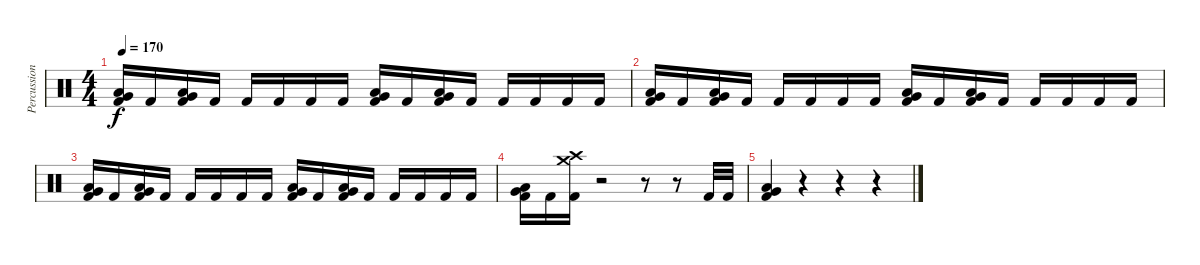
\track ("Percussion" "Percussion") {instrument percussion}
\staff {score}
\articulation defaults
\ts (4 4)
\tempo 170
\clef neutral
\ks c
("Low Floor Tom (hit)" "Very Low Tom (hit)" "Kick (hit) 2").16{dy f} "Kick (hit) 2".16 ("Low Floor Tom (hit)" "Very Low Tom (hit)" "Kick (hit) 2").16 "Kick (hit) 2".16 "Kick (hit) 2".16 "Kick (hit) 2".16 "Kick (hit) 2".16 "Kick (hit) 2".16 ("Low Floor Tom (hit)" "Very Low Tom (hit)" "Kick (hit) 2").16 "Kick (hit) 2".16 ("Low Floor Tom (hit)" "Very Low Tom (hit)" "Kick (hit) 2").16 "Kick (hit) 2".16 "Kick (hit) 2".16 "Kick (hit) 2".16 "Kick (hit) 2".16 "Kick (hit) 2".16 |
("Low Floor Tom (hit)" "Very Low Tom (hit)" "Kick (hit) 2").16 "Kick (hit) 2".16 ("Low Floor Tom (hit)" "Very Low Tom (hit)" "Kick (hit) 2").16 "Kick (hit) 2".16 "Kick (hit) 2".16 "Kick (hit) 2".16 "Kick (hit) 2".16 "Kick (hit) 2".16 ("Low Floor Tom (hit)" "Very Low Tom (hit)" "Kick (hit) 2").16 "Kick (hit) 2".16 ("Low Floor Tom (hit)" "Very Low Tom (hit)" "Kick (hit) 2").16 "Kick (hit) 2".16 "Kick (hit) 2".16 "Kick (hit) 2".16 "Kick (hit) 2".16 "Kick (hit) 2".16 |
("Low Floor Tom (hit)" "Very Low Tom (hit)" "Kick (hit) 2").16 "Kick (hit) 2".16 ("Low Floor Tom (hit)" "Very Low Tom (hit)" "Kick (hit) 2").16 "Kick (hit) 2".16 "Kick (hit) 2".16 "Kick (hit) 2".16 "Kick (hit) 2".16 "Kick (hit) 2".16 ("Low Floor Tom (hit)" "Very Low Tom (hit)" "Kick (hit) 2").16 "Kick (hit) 2".16 ("Low Floor Tom (hit)" "Very Low Tom (hit)" "Kick (hit) 2").16 "Kick (hit) 2".16 "Kick (hit) 2".16 "Kick (hit) 2".16 "Kick (hit) 2".16 "Kick (hit) 2".16 |
("Low Floor Tom (hit)" "Very Low Tom (hit)" "Kick (hit) 2").16 "Kick (hit) 2".16 ("Crash high (hit)" "Crash medium (hit)" "Kick (hit) 2").16 r.2 r.8 r.8 "Kick (hit) 2".32 "Kick (hit) 2".32 |
("Kick (hit) 2" "Very Low Tom (hit)" "Low Floor Tom (hit)").4 r.4 r.4 r.4
